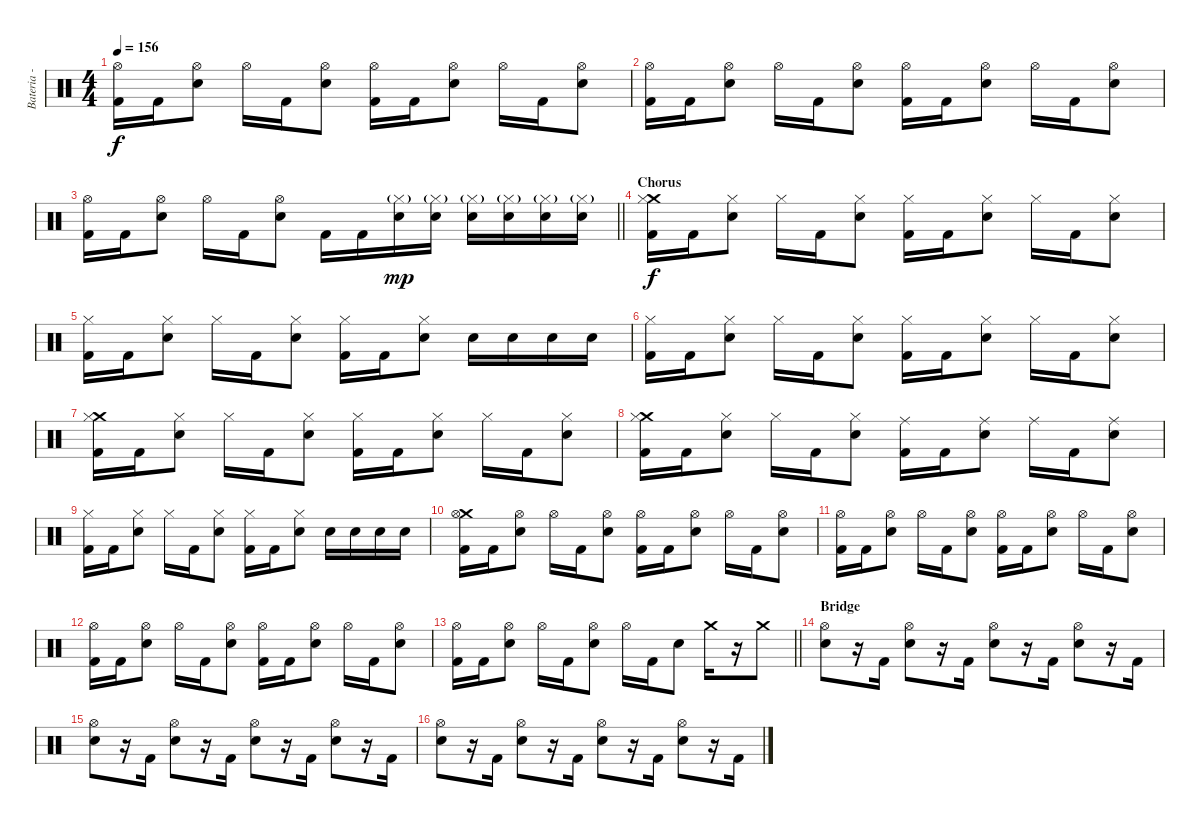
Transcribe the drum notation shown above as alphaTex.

\track ("Bateria - Larzon" "Bateria - ") {instrument percussion}
\staff {score}
\articulation defaults
\ts (4 4)
\tempo 156
\clef neutral
\ks c
("Kick (hit) 2" "Hi-Hat (open)").16{dy f} "Kick (hit) 2".16 ("Snare (hit) 2" "Hi-Hat (open)").8 "Hi-Hat (open)".16 "Kick (hit) 2".16 ("Snare (hit) 2" "Hi-Hat (open)").8 ("Kick (hit) 2" "Hi-Hat (open)").16 "Kick (hit) 2".16 ("Snare (hit) 2" "Hi-Hat (open)").8 "Hi-Hat (open)".16 "Kick (hit) 2".16 ("Snare (hit) 2" "Hi-Hat (open)").8 |
("Kick (hit) 2" "Hi-Hat (open)").16 "Kick (hit) 2".16 ("Snare (hit) 2" "Hi-Hat (open)").8 "Hi-Hat (open)".16 "Kick (hit) 2".16 ("Snare (hit) 2" "Hi-Hat (open)").8 ("Kick (hit) 2" "Hi-Hat (open)").16 "Kick (hit) 2".16 ("Snare (hit) 2" "Hi-Hat (open)").8 "Hi-Hat (open)".16 "Kick (hit) 2".16 ("Snare (hit) 2" "Hi-Hat (open)").8 |
\barLineRight lightlight
("Kick (hit) 2" "Hi-Hat (open)").16 "Kick (hit) 2".16 ("Snare (hit) 2" "Hi-Hat (open)").8 "Hi-Hat (open)".16 "Kick (hit) 2".16 ("Snare (hit) 2" "Hi-Hat (open)").8 "Kick (hit) 2".16 "Kick (hit) 2".16 ("Snare (hit) 2" "Hi-Hat (closed)"{g}).16{dy mp} ("Snare (hit) 2" "Hi-Hat (closed)"{g}).16 ("Snare (hit) 2" "Hi-Hat (closed)"{g}).16 ("Snare (hit) 2" "Hi-Hat (closed)"{g}).16 ("Snare (hit) 2" "Hi-Hat (closed)"{g}).16 ("Snare (hit) 2" "Hi-Hat (closed)"{g}).16 |
\section ("" "Chorus")
("Crash medium (hit)" "Kick (hit) 2" "Hi-Hat (closed)").16{dy f} "Kick (hit) 2".16 ("Snare (hit) 2" "Hi-Hat (closed)").8 "Hi-Hat (closed)".16 "Kick (hit) 2".16 ("Snare (hit) 2" "Hi-Hat (closed)").8 ("Kick (hit) 2" "Hi-Hat (closed)").16 "Kick (hit) 2".16 ("Snare (hit) 2" "Hi-Hat (closed)").8 "Hi-Hat (closed)".16 "Kick (hit) 2".16 ("Snare (hit) 2" "Hi-Hat (closed)").8 |
("Kick (hit) 2" "Hi-Hat (closed)").16 "Kick (hit) 2".16 ("Snare (hit) 2" "Hi-Hat (closed)").8 "Hi-Hat (closed)".16 "Kick (hit) 2".16 ("Snare (hit) 2" "Hi-Hat (closed)").8 ("Kick (hit) 2" "Hi-Hat (closed)").16 "Kick (hit) 2".16 ("Snare (hit) 2" "Hi-Hat (closed)").8 "Snare (hit) 2".16 "Snare (hit) 2".16 "Snare (hit) 2".16 "Snare (hit) 2".16 |
("Kick (hit) 2" "Hi-Hat (closed)").16 "Kick (hit) 2".16 ("Snare (hit) 2" "Hi-Hat (closed)").8 "Hi-Hat (closed)".16 "Kick (hit) 2".16 ("Snare (hit) 2" "Hi-Hat (closed)").8 ("Kick (hit) 2" "Hi-Hat (closed)").16 "Kick (hit) 2".16 ("Snare (hit) 2" "Hi-Hat (closed)").8 "Hi-Hat (closed)".16 "Kick (hit) 2".16 ("Snare (hit) 2" "Hi-Hat (closed)").8 |
("Crash medium (hit)" "Kick (hit) 2" "Hi-Hat (closed)").16 "Kick (hit) 2".16 ("Snare (hit) 2" "Hi-Hat (closed)").8 "Hi-Hat (closed)".16 "Kick (hit) 2".16 ("Snare (hit) 2" "Hi-Hat (closed)").8 ("Kick (hit) 2" "Hi-Hat (closed)").16 "Kick (hit) 2".16 ("Snare (hit) 2" "Hi-Hat (closed)").8 "Hi-Hat (closed)".16 "Kick (hit) 2".16 ("Snare (hit) 2" "Hi-Hat (closed)").8 |
("Crash medium (hit)" "Kick (hit) 2" "Hi-Hat (closed)").16 "Kick (hit) 2".16 ("Snare (hit) 2" "Hi-Hat (closed)").8 "Hi-Hat (closed)".16 "Kick (hit) 2".16 ("Snare (hit) 2" "Hi-Hat (closed)").8 ("Kick (hit) 2" "Ride (middle)").16 "Kick (hit) 2".16 ("Snare (hit) 2" "Ride (middle)").8 "Ride (middle)".16 "Kick (hit) 2".16 ("Snare (hit) 2" "Ride (middle)").8 |
("Kick (hit) 2" "Hi-Hat (closed)").16 "Kick (hit) 2".16 ("Snare (hit) 2" "Hi-Hat (closed)").8 "Hi-Hat (closed)".16 "Kick (hit) 2".16 ("Snare (hit) 2" "Hi-Hat (closed)").8 ("Kick (hit) 2" "Hi-Hat (closed)").16 "Kick (hit) 2".16 ("Snare (hit) 2" "Hi-Hat (closed)").8 "Snare (hit) 2".16 "Snare (hit) 2".16 "Snare (hit) 2".16 "Snare (hit) 2".16 |
("Crash medium (hit)" "Kick (hit) 2" "Hi-Hat (open)").16 "Kick (hit) 2".16 ("Snare (hit) 2" "Hi-Hat (open)").8 "Hi-Hat (open)".16 "Kick (hit) 2".16 ("Snare (hit) 2" "Hi-Hat (open)").8 ("Kick (hit) 2" "Hi-Hat (open)").16 "Kick (hit) 2".16 ("Snare (hit) 2" "Hi-Hat (open)").8 "Hi-Hat (open)".16 "Kick (hit) 2".16 ("Snare (hit) 2" "Hi-Hat (open)").8 |
("Kick (hit) 2" "Hi-Hat (open)").16 "Kick (hit) 2".16 ("Snare (hit) 2" "Hi-Hat (open)").8 "Hi-Hat (open)".16 "Kick (hit) 2".16 ("Snare (hit) 2" "Hi-Hat (open)").8 ("Kick (hit) 2" "Hi-Hat (open)").16 "Kick (hit) 2".16 ("Snare (hit) 2" "Hi-Hat (open)").8 "Hi-Hat (open)".16 "Kick (hit) 2".16 ("Snare (hit) 2" "Hi-Hat (open)").8 |
("Kick (hit) 2" "Hi-Hat (open)").16 "Kick (hit) 2".16 ("Snare (hit) 2" "Hi-Hat (open)").8 "Hi-Hat (open)".16 "Kick (hit) 2".16 ("Snare (hit) 2" "Hi-Hat (open)").8 ("Kick (hit) 2" "Hi-Hat (open)").16 "Kick (hit) 2".16 ("Snare (hit) 2" "Hi-Hat (open)").8 "Hi-Hat (open)".16 "Kick (hit) 2".16 ("Snare (hit) 2" "Hi-Hat (open)").8 |
\barLineRight lightlight
("Kick (hit) 2" "Hi-Hat (open)").16 "Kick (hit) 2".16 ("Snare (hit) 2" "Hi-Hat (open)").8 "Hi-Hat (open)".16 "Kick (hit) 2".16 ("Snare (hit) 2" "Hi-Hat (open)").8 "Hi-Hat (open)".16 "Kick (hit) 2".16 "Snare (hit) 2".8 "Crash medium (hit)".16 r.16 "Crash medium (hit)".8 |
\section ("" "Bridge")
("Snare (hit) 2" "Hi-Hat (open)").8 r.16 "Kick (hit) 2".16 ("Snare (hit) 2" "Hi-Hat (open)").8 r.16 "Kick (hit) 2".16 ("Snare (hit) 2" "Hi-Hat (open)").8 r.16 "Kick (hit) 2".16 ("Snare (hit) 2" "Hi-Hat (open)").8 r.16 "Kick (hit) 2".16 |
("Snare (hit) 2" "Hi-Hat (open)").8 r.16 "Kick (hit) 2".16 ("Snare (hit) 2" "Hi-Hat (open)").8 r.16 "Kick (hit) 2".16 ("Snare (hit) 2" "Hi-Hat (open)").8 r.16 "Kick (hit) 2".16 ("Snare (hit) 2" "Hi-Hat (open)").8 r.16 "Kick (hit) 2".16 |
("Snare (hit) 2" "Hi-Hat (open)").8 r.16 "Kick (hit) 2".16 ("Snare (hit) 2" "Hi-Hat (open)").8 r.16 "Kick (hit) 2".16 ("Snare (hit) 2" "Hi-Hat (open)").8 r.16 "Kick (hit) 2".16 ("Snare (hit) 2" "Hi-Hat (open)").8 r.16 "Kick (hit) 2".16
